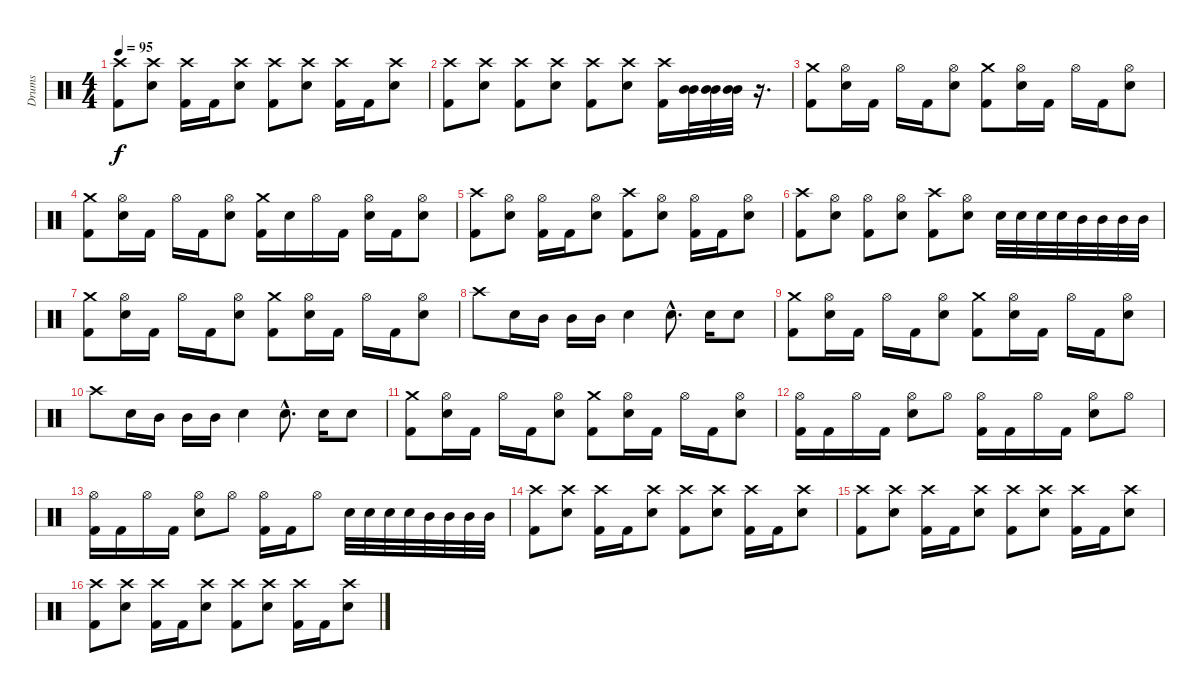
\track ("Drums" "Drums") {instrument percussion}
\staff {score}
\articulation defaults
\ts (4 4)
\tempo 95
\clef neutral
\ks c
("Crash high (hit)" "Kick (hit) 2").8{dy f} ("Crash high (hit)" "Electric Snare (hit)").8 ("Crash high (hit)" "Kick (hit) 2").16 "Kick (hit) 2".16 ("Crash high (hit)" "Electric Snare (hit)").8 ("Crash high (hit)" "Kick (hit) 2").8 ("Crash high (hit)" "Electric Snare (hit)").8 ("Crash high (hit)" "Kick (hit) 2").16 "Kick (hit) 2".16 ("Crash high (hit)" "Electric Snare (hit)").8 |
("Crash high (hit)" "Kick (hit) 2").8 ("Crash high (hit)" "Electric Snare (hit)").8 ("Crash high (hit)" "Kick (hit) 2").8 ("Crash high (hit)" "Electric Snare (hit)").8 ("Crash high (hit)" "Kick (hit) 2").8 ("Crash high (hit)" "Electric Snare (hit)").8 ("Crash high (hit)" "Kick (hit) 2").16 ("Mid Tom (hit)" "Mid Tom (hit)").32 ("Mid Tom (hit)" "Mid Tom (hit)").32 ("Mid Tom (hit)" "Mid Tom (hit)").32 r.16{d} |
("Crash medium (hit)" "Kick (hit) 2").8 ("Hi-Hat (open)" "Electric Snare (hit)").16 "Kick (hit) 2".16 "Hi-Hat (open)".16 "Kick (hit) 2".16 ("Hi-Hat (open)" "Electric Snare (hit)").8 ("Crash medium (hit)" "Kick (hit) 2").8 ("Hi-Hat (open)" "Electric Snare (hit)").16 "Kick (hit) 2".16 "Hi-Hat (open)".16 "Kick (hit) 2".16 ("Hi-Hat (open)" "Electric Snare (hit)").8 |
("Crash medium (hit)" "Kick (hit) 2").8 ("Hi-Hat (open)" "Electric Snare (hit)").16 "Kick (hit) 2".16 "Hi-Hat (open)".16 "Kick (hit) 2".16 ("Hi-Hat (open)" "Electric Snare (hit)").8 ("Crash medium (hit)" "Kick (hit) 2").16 "Electric Snare (hit)".16 "Hi-Hat (open)".16 "Kick (hit) 2".16 ("Hi-Hat (open)" "Electric Snare (hit)").16 "Kick (hit) 2".16 ("Hi-Hat (open)" "Electric Snare (hit)").8 |
("Crash high (hit)" "Kick (hit) 2").8 ("Hi-Hat (open)" "Electric Snare (hit)").8 ("Hi-Hat (open)" "Kick (hit) 2").16 "Kick (hit) 2".16 ("Hi-Hat (open)" "Electric Snare (hit)").8 ("Crash high (hit)" "Kick (hit) 2").8 ("Hi-Hat (open)" "Electric Snare (hit)").8 ("Hi-Hat (open)" "Kick (hit) 2").16 "Kick (hit) 2".16 ("Hi-Hat (open)" "Electric Snare (hit)").8 |
("Crash high (hit)" "Kick (hit) 2").8 ("Hi-Hat (open)" "Electric Snare (hit)").8 ("Hi-Hat (open)" "Kick (hit) 2").8 ("Hi-Hat (open)" "Electric Snare (hit)").8 ("Crash high (hit)" "Kick (hit) 2").8 ("Hi-Hat (open)" "Electric Snare (hit)").8 "Electric Snare (hit)".32 "Electric Snare (hit)".32 "Electric Snare (hit)".32 "Electric Snare (hit)".32 "Mid Tom (hit)".32 "Mid Tom (hit)".32 "Mid Tom (hit)".32 "Mid Tom (hit)".32 |
("Crash medium (hit)" "Kick (hit) 2").8 ("Hi-Hat (open)" "Electric Snare (hit)").16 "Kick (hit) 2".16 "Hi-Hat (open)".16 "Kick (hit) 2".16 ("Hi-Hat (open)" "Electric Snare (hit)").8 ("Crash medium (hit)" "Kick (hit) 2").8 ("Hi-Hat (open)" "Electric Snare (hit)").16 "Kick (hit) 2".16 "Hi-Hat (open)".16 "Kick (hit) 2".16 ("Hi-Hat (open)" "Electric Snare (hit)").8 |
"Crash high (hit)".8 "Electric Snare (hit)".16 "Mid Tom (hit)".16 "Mid Tom (hit)".16 "Mid Tom (hit)".16 "Electric Snare (hit)".4 "Electric Snare (hit)"{hac}.8{d} "Electric Snare (hit)".16 "Electric Snare (hit)".8 |
("Crash medium (hit)" "Kick (hit) 2").8 ("Hi-Hat (open)" "Electric Snare (hit)").16 "Kick (hit) 2".16 "Hi-Hat (open)".16 "Kick (hit) 2".16 ("Hi-Hat (open)" "Electric Snare (hit)").8 ("Crash medium (hit)" "Kick (hit) 2").8 ("Hi-Hat (open)" "Electric Snare (hit)").16 "Kick (hit) 2".16 "Hi-Hat (open)".16 "Kick (hit) 2".16 ("Hi-Hat (open)" "Electric Snare (hit)").8 |
"Crash high (hit)".8 "Electric Snare (hit)".16 "Mid Tom (hit)".16 "Mid Tom (hit)".16 "Mid Tom (hit)".16 "Electric Snare (hit)".4 "Electric Snare (hit)"{hac}.8{d} "Electric Snare (hit)".16 "Electric Snare (hit)".8 |
("Crash medium (hit)" "Kick (hit) 2").8 ("Hi-Hat (open)" "Electric Snare (hit)").16 "Kick (hit) 2".16 "Hi-Hat (open)".16 "Kick (hit) 2".16 ("Hi-Hat (open)" "Electric Snare (hit)").8 ("Crash medium (hit)" "Kick (hit) 2").8 ("Hi-Hat (open)" "Electric Snare (hit)").16 "Kick (hit) 2".16 "Hi-Hat (open)".16 "Kick (hit) 2".16 ("Hi-Hat (open)" "Electric Snare (hit)").8 |
("Hi-Hat (open)" "Kick (hit) 2").16 "Kick (hit) 2".16 "Hi-Hat (open)".16 "Kick (hit) 2".16 ("Hi-Hat (open)" "Electric Snare (hit)").8 "Hi-Hat (open)".8 ("Hi-Hat (open)" "Kick (hit) 2").16 "Kick (hit) 2".16 "Hi-Hat (open)".16 "Kick (hit) 2".16 ("Hi-Hat (open)" "Electric Snare (hit)").8 "Hi-Hat (open)".8 |
("Hi-Hat (open)" "Kick (hit) 2").16 "Kick (hit) 2".16 "Hi-Hat (open)".16 "Kick (hit) 2".16 ("Hi-Hat (open)" "Electric Snare (hit)").8 "Hi-Hat (open)".8 ("Hi-Hat (open)" "Kick (hit) 2").16 "Kick (hit) 2".16 "Hi-Hat (open)".8 "Electric Snare (hit)".32 "Electric Snare (hit)".32 "Electric Snare (hit)".32 "Electric Snare (hit)".32 "Mid Tom (hit)".32 "Mid Tom (hit)".32 "Mid Tom (hit)".32 "Mid Tom (hit)".32 |
("Crash high (hit)" "Kick (hit) 2").8 ("Crash high (hit)" "Electric Snare (hit)").8 ("Crash high (hit)" "Kick (hit) 2").16 "Kick (hit) 2".16 ("Crash high (hit)" "Electric Snare (hit)").8 ("Crash high (hit)" "Kick (hit) 2").8 ("Crash high (hit)" "Electric Snare (hit)").8 ("Crash high (hit)" "Kick (hit) 2").16 "Kick (hit) 2".16 ("Crash high (hit)" "Electric Snare (hit)").8 |
("Crash high (hit)" "Kick (hit) 2").8 ("Crash high (hit)" "Electric Snare (hit)").8 ("Crash high (hit)" "Kick (hit) 2").16 "Kick (hit) 2".16 ("Crash high (hit)" "Electric Snare (hit)").8 ("Crash high (hit)" "Kick (hit) 2").8 ("Crash high (hit)" "Electric Snare (hit)").8 ("Crash high (hit)" "Kick (hit) 2").16 "Kick (hit) 2".16 ("Crash high (hit)" "Electric Snare (hit)").8 |
("Crash high (hit)" "Kick (hit) 2").8 ("Crash high (hit)" "Electric Snare (hit)").8 ("Crash high (hit)" "Kick (hit) 2").16 "Kick (hit) 2".16 ("Crash high (hit)" "Electric Snare (hit)").8 ("Crash high (hit)" "Kick (hit) 2").8 ("Crash high (hit)" "Electric Snare (hit)").8 ("Crash high (hit)" "Kick (hit) 2").16 "Kick (hit) 2".16 ("Crash high (hit)" "Electric Snare (hit)").8
